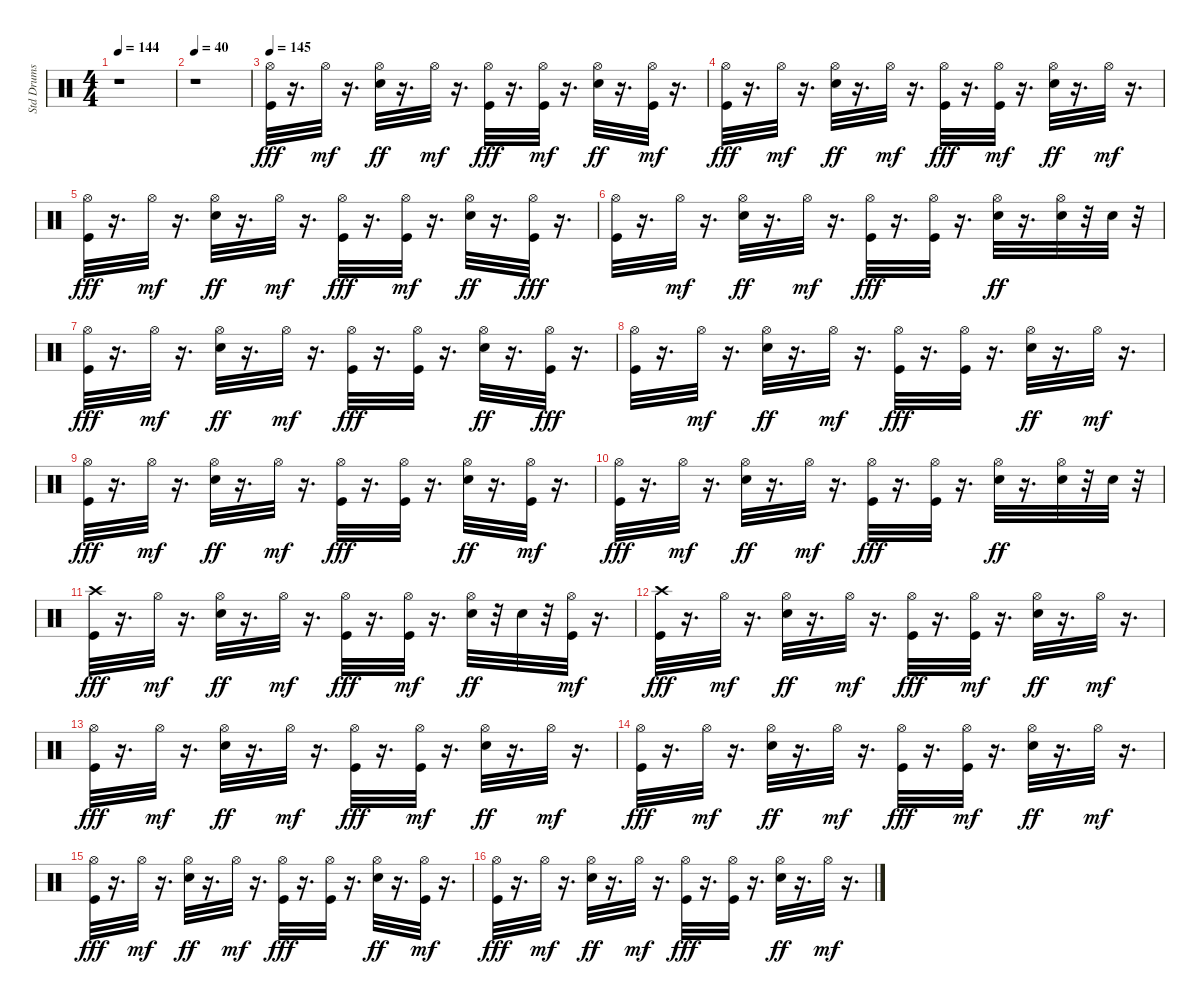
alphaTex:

\track ("Std Drums" "Std Drums") {instrument percussion}
\staff {score}
\articulation defaults
\ts (4 4)
\tempo 144
\clef neutral
\ks c
r.1{dy fff} |
\tempo 40
r.1 |
\tempo 145
("Kick (hit)" "Hi-Hat (open)").32 r.16{d} "Hi-Hat (open)".32{dy mf} r.16{d} ("Hi-Hat (open)" "Snare (hit) 2").32{dy ff} r.16{d} "Hi-Hat (open)".32{dy mf} r.16{d} ("Hi-Hat (open)" "Kick (hit)").32{dy fff} r.16{d} ("Kick (hit)" "Hi-Hat (open)").32{dy mf} r.16{d} ("Snare (hit) 2" "Hi-Hat (open)").32{dy ff} r.16{d} ("Kick (hit)" "Hi-Hat (open)").32{dy mf} r.16{d} |
("Kick (hit)" "Hi-Hat (open)").32{dy fff} r.16{d} "Hi-Hat (open)".32{dy mf} r.16{d} ("Hi-Hat (open)" "Snare (hit) 2").32{dy ff} r.16{d} "Hi-Hat (open)".32{dy mf} r.16{d} ("Hi-Hat (open)" "Kick (hit)").32{dy fff} r.16{d} ("Kick (hit)" "Hi-Hat (open)").32{dy mf} r.16{d} ("Hi-Hat (open)" "Snare (hit) 2").32{dy ff} r.16{d} "Hi-Hat (open)".32{dy mf} r.16{d} |
("Hi-Hat (open)" "Kick (hit)").32{dy fff} r.16{d} "Hi-Hat (open)".32{dy mf} r.16{d} ("Snare (hit) 2" "Hi-Hat (open)").32{dy ff} r.16{d} "Hi-Hat (open)".32{dy mf} r.16{d} ("Kick (hit)" "Hi-Hat (open)").32{dy fff} r.16{d} ("Kick (hit)" "Hi-Hat (open)").32{dy mf} r.16{d} ("Snare (hit) 2" "Hi-Hat (open)").32{dy ff} r.16{d} ("Hi-Hat (open)" "Kick (hit)").32{dy fff} r.16{d} |
("Hi-Hat (open)" "Kick (hit)").32 r.16{d} "Hi-Hat (open)".32{dy mf} r.16{d} ("Hi-Hat (open)" "Snare (hit) 2").32{dy ff} r.16{d} "Hi-Hat (open)".32{dy mf} r.16{d} ("Kick (hit)" "Hi-Hat (open)").32{dy fff} r.16{d} ("Hi-Hat (open)" "Kick (hit)").32 r.16{d} ("Snare (hit) 2" "Hi-Hat (open)").32{dy ff} r.16{d} ("Hi-Hat (open)" "Snare (hit) 2").32 r.32 "Snare (hit) 2".32 r.32 |
("Kick (hit)" "Hi-Hat (open)").32{dy fff} r.16{d} "Hi-Hat (open)".32{dy mf} r.16{d} ("Hi-Hat (open)" "Snare (hit) 2").32{dy ff} r.16{d} "Hi-Hat (open)".32{dy mf} r.16{d} ("Hi-Hat (open)" "Kick (hit)").32{dy fff} r.16{d} ("Hi-Hat (open)" "Kick (hit)").32 r.16{d} ("Hi-Hat (open)" "Snare (hit) 2").32{dy ff} r.16{d} ("Hi-Hat (open)" "Kick (hit)").32{dy fff} r.16{d} |
("Kick (hit)" "Hi-Hat (open)").32 r.16{d} "Hi-Hat (open)".32{dy mf} r.16{d} ("Hi-Hat (open)" "Snare (hit) 2").32{dy ff} r.16{d} "Hi-Hat (open)".32{dy mf} r.16{d} ("Kick (hit)" "Hi-Hat (open)").32{dy fff} r.16{d} ("Hi-Hat (open)" "Kick (hit)").32 r.16{d} ("Hi-Hat (open)" "Snare (hit) 2").32{dy ff} r.16{d} "Hi-Hat (open)".32{dy mf} r.16{d} |
("Hi-Hat (open)" "Kick (hit)").32{dy fff} r.16{d} "Hi-Hat (open)".32{dy mf} r.16{d} ("Hi-Hat (open)" "Snare (hit) 2").32{dy ff} r.16{d} "Hi-Hat (open)".32{dy mf} r.16{d} ("Hi-Hat (open)" "Kick (hit)").32{dy fff} r.16{d} ("Hi-Hat (open)" "Kick (hit)").32 r.16{d} ("Snare (hit) 2" "Hi-Hat (open)").32{dy ff} r.16{d} ("Kick (hit)" "Hi-Hat (open)").32{dy mf} r.16{d} |
("Hi-Hat (open)" "Kick (hit)").32{dy fff} r.16{d} "Hi-Hat (open)".32{dy mf} r.16{d} ("Hi-Hat (open)" "Snare (hit) 2").32{dy ff} r.16{d} "Hi-Hat (open)".32{dy mf} r.16{d} ("Hi-Hat (open)" "Kick (hit)").32{dy fff} r.16{d} ("Hi-Hat (open)" "Kick (hit)").32 r.16{d} ("Hi-Hat (open)" "Snare (hit) 2").32{dy ff} r.16{d} ("Hi-Hat (open)" "Snare (hit) 2").32 r.32 "Snare (hit) 2".32 r.32 |
("Kick (hit)" "Crash high (hit)").32{dy fff} r.16{d} "Hi-Hat (open)".32{dy mf} r.16{d} ("Hi-Hat (open)" "Snare (hit) 2").32{dy ff} r.16{d} "Hi-Hat (open)".32{dy mf} r.16{d} ("Hi-Hat (open)" "Kick (hit)").32{dy fff} r.16{d} ("Kick (hit)" "Hi-Hat (open)").32{dy mf} r.16{d} ("Hi-Hat (open)" "Snare (hit) 2").32{dy ff} r.32 "Snare (hit) 2".32 r.32 ("Kick (hit)" "Hi-Hat (open)").32{dy mf} r.16{d} |
("Kick (hit)" "Crash high (hit)").32{dy fff} r.16{d} "Hi-Hat (open)".32{dy mf} r.16{d} ("Hi-Hat (open)" "Snare (hit) 2").32{dy ff} r.16{d} "Hi-Hat (open)".32{dy mf} r.16{d} ("Kick (hit)" "Hi-Hat (open)").32{dy fff} r.16{d} ("Kick (hit)" "Hi-Hat (open)").32{dy mf} r.16{d} ("Snare (hit) 2" "Hi-Hat (open)").32{dy ff} r.16{d} "Hi-Hat (open)".32{dy mf} r.16{d} |
("Kick (hit)" "Hi-Hat (open)").32{dy fff} r.16{d} "Hi-Hat (open)".32{dy mf} r.16{d} ("Hi-Hat (open)" "Snare (hit) 2").32{dy ff} r.16{d} "Hi-Hat (open)".32{dy mf} r.16{d} ("Kick (hit)" "Hi-Hat (open)").32{dy fff} r.16{d} ("Kick (hit)" "Hi-Hat (open)").32{dy mf} r.16{d} ("Snare (hit) 2" "Hi-Hat (open)").32{dy ff} r.16{d} "Hi-Hat (open)".32{dy mf} r.16{d} |
("Hi-Hat (open)" "Kick (hit)").32{dy fff} r.16{d} "Hi-Hat (open)".32{dy mf} r.16{d} ("Hi-Hat (open)" "Snare (hit) 2").32{dy ff} r.16{d} "Hi-Hat (open)".32{dy mf} r.16{d} ("Hi-Hat (open)" "Kick (hit)").32{dy fff} r.16{d} ("Kick (hit)" "Hi-Hat (open)").32{dy mf} r.16{d} ("Snare (hit) 2" "Hi-Hat (open)").32{dy ff} r.16{d} "Hi-Hat (open)".32{dy mf} r.16{d} |
("Kick (hit)" "Hi-Hat (open)").32{dy fff} r.16{d} "Hi-Hat (open)".32{dy mf} r.16{d} ("Snare (hit) 2" "Hi-Hat (open)").32{dy ff} r.16{d} "Hi-Hat (open)".32{dy mf} r.16{d} ("Hi-Hat (open)" "Kick (hit)").32{dy fff} r.16{d} ("Hi-Hat (open)" "Kick (hit)").32 r.16{d} ("Snare (hit) 2" "Hi-Hat (open)").32{dy ff} r.16{d} ("Kick (hit)" "Hi-Hat (open)").32{dy mf} r.16{d} |
("Kick (hit)" "Hi-Hat (open)").32{dy fff} r.16{d} "Hi-Hat (open)".32{dy mf} r.16{d} ("Hi-Hat (open)" "Snare (hit) 2").32{dy ff} r.16{d} "Hi-Hat (open)".32{dy mf} r.16{d} ("Hi-Hat (open)" "Kick (hit)").32{dy fff} r.16{d} ("Hi-Hat (open)" "Kick (hit)").32 r.16{d} ("Hi-Hat (open)" "Snare (hit) 2").32{dy ff} r.16{d} "Hi-Hat (open)".32{dy mf} r.16{d}
